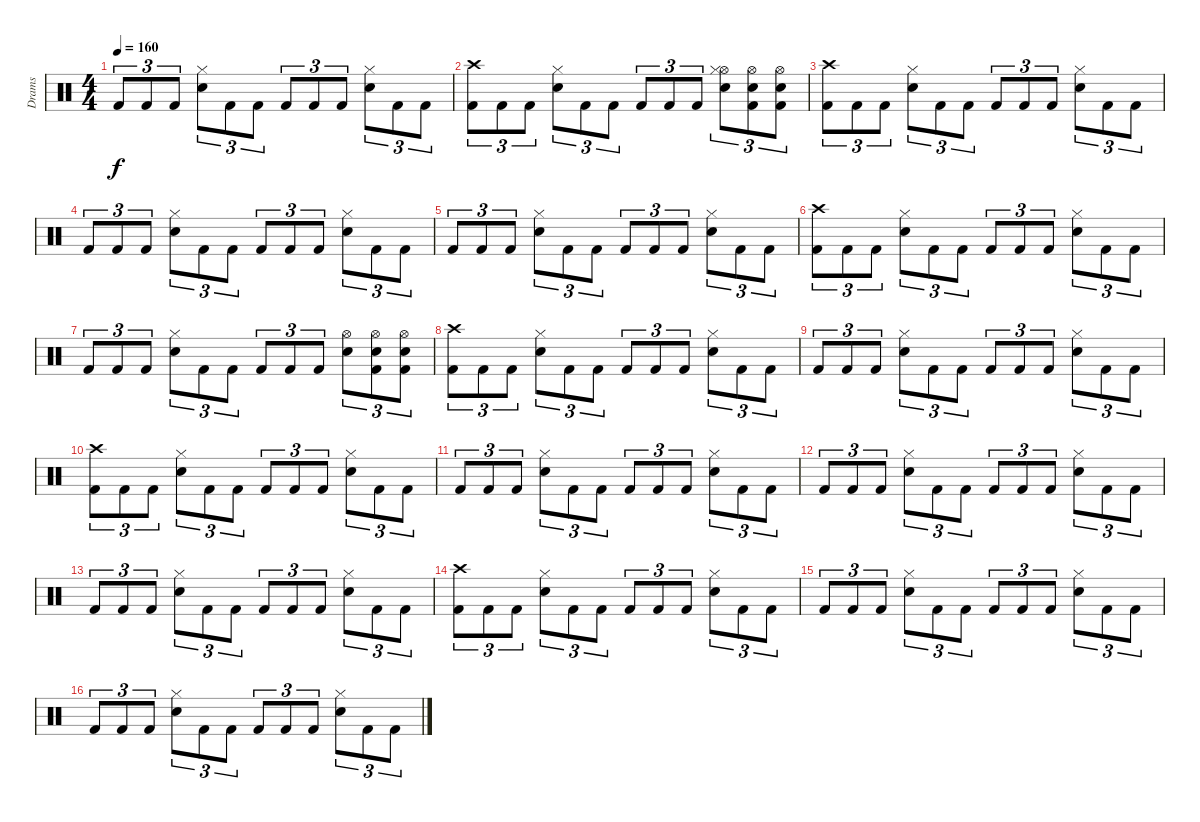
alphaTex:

\track ("Drams" "Drams") {instrument percussion}
\staff {score}
\articulation defaults
\ts (4 4)
\tempo 160
\clef neutral
\ks c "Kick (hit) 2".8{tu (3 2) dy f} "Kick (hit) 2".8{tu (3 2)} "Kick (hit) 2".8{tu (3 2)}
("Hi-Hat (closed)" "Snare (hit) 2").8{tu (3 2)} "Kick (hit) 2".8{tu (3 2)} "Kick (hit) 2".8{tu (3 2)} "Kick (hit) 2".8{tu (3 2)} "Kick (hit) 2".8{tu (3 2)} "Kick (hit) 2".8{tu (3 2)} ("Hi-Hat (closed)" "Snare (hit) 2").8{tu (3 2)} "Kick (hit) 2".8{tu (3 2)} "Kick (hit) 2".8{tu (3 2)} |
("Crash high (hit)" "Kick (hit) 2").8{tu (3 2)} "Kick (hit) 2".8{tu (3 2)} "Kick (hit) 2".8{tu (3 2)} ("Hi-Hat (closed)" "Snare (hit) 2").8{tu (3 2)} "Kick (hit) 2".8{tu (3 2)} "Kick (hit) 2".8{tu (3 2)} "Kick (hit) 2".8{tu (3 2)} "Kick (hit) 2".8{tu (3 2)} "Kick (hit) 2".8{tu (3 2)} ("Hi-Hat (open)" "Hi-Hat (closed)" "Snare (hit) 2").8{tu (3 2)} ("Hi-Hat (open)" "Snare (hit) 2" "Kick (hit) 2").8{tu (3 2)} ("Hi-Hat (open)" "Snare (hit) 2" "Kick (hit) 2").8{tu (3 2)} |
("Crash high (hit)" "Kick (hit) 2").8{tu (3 2)} "Kick (hit) 2".8{tu (3 2)} "Kick (hit) 2".8{tu (3 2)} ("Hi-Hat (closed)" "Snare (hit) 2").8{tu (3 2)} "Kick (hit) 2".8{tu (3 2)} "Kick (hit) 2".8{tu (3 2)} "Kick (hit) 2".8{tu (3 2)} "Kick (hit) 2".8{tu (3 2)} "Kick (hit) 2".8{tu (3 2)} ("Hi-Hat (closed)" "Snare (hit) 2").8{tu (3 2)} "Kick (hit) 2".8{tu (3 2)} "Kick (hit) 2".8{tu (3 2)} |
"Kick (hit) 2".8{tu (3 2)} "Kick (hit) 2".8{tu (3 2)} "Kick (hit) 2".8{tu (3 2)} ("Hi-Hat (closed)" "Snare (hit) 2").8{tu (3 2)} "Kick (hit) 2".8{tu (3 2)} "Kick (hit) 2".8{tu (3 2)} "Kick (hit) 2".8{tu (3 2)} "Kick (hit) 2".8{tu (3 2)} "Kick (hit) 2".8{tu (3 2)} ("Hi-Hat (closed)" "Snare (hit) 2").8{tu (3 2)} "Kick (hit) 2".8{tu (3 2)} "Kick (hit) 2".8{tu (3 2)} |
"Kick (hit) 2".8{tu (3 2)} "Kick (hit) 2".8{tu (3 2)} "Kick (hit) 2".8{tu (3 2)} ("Hi-Hat (closed)" "Snare (hit) 2").8{tu (3 2)} "Kick (hit) 2".8{tu (3 2)} "Kick (hit) 2".8{tu (3 2)} "Kick (hit) 2".8{tu (3 2)} "Kick (hit) 2".8{tu (3 2)} "Kick (hit) 2".8{tu (3 2)} ("Hi-Hat (closed)" "Snare (hit) 2").8{tu (3 2)} "Kick (hit) 2".8{tu (3 2)} "Kick (hit) 2".8{tu (3 2)} |
("Crash high (hit)" "Kick (hit) 2").8{tu (3 2)} "Kick (hit) 2".8{tu (3 2)} "Kick (hit) 2".8{tu (3 2)} ("Hi-Hat (closed)" "Snare (hit) 2").8{tu (3 2)} "Kick (hit) 2".8{tu (3 2)} "Kick (hit) 2".8{tu (3 2)} "Kick (hit) 2".8{tu (3 2)} "Kick (hit) 2".8{tu (3 2)} "Kick (hit) 2".8{tu (3 2)} ("Hi-Hat (closed)" "Snare (hit) 2").8{tu (3 2)} "Kick (hit) 2".8{tu (3 2)} "Kick (hit) 2".8{tu (3 2)} |
"Kick (hit) 2".8{tu (3 2)} "Kick (hit) 2".8{tu (3 2)} "Kick (hit) 2".8{tu (3 2)} ("Hi-Hat (closed)" "Snare (hit) 2").8{tu (3 2)} "Kick (hit) 2".8{tu (3 2)} "Kick (hit) 2".8{tu (3 2)} "Kick (hit) 2".8{tu (3 2)} "Kick (hit) 2".8{tu (3 2)} "Kick (hit) 2".8{tu (3 2)} ("Hi-Hat (open)" "Snare (hit) 2").8{tu (3 2)} ("Hi-Hat (open)" "Snare (hit) 2" "Kick (hit) 2").8{tu (3 2)} ("Hi-Hat (open)" "Snare (hit) 2" "Kick (hit) 2").8{tu (3 2)} |
("Crash high (hit)" "Kick (hit) 2").8{tu (3 2)} "Kick (hit) 2".8{tu (3 2)} "Kick (hit) 2".8{tu (3 2)} ("Hi-Hat (closed)" "Snare (hit) 2").8{tu (3 2)} "Kick (hit) 2".8{tu (3 2)} "Kick (hit) 2".8{tu (3 2)} "Kick (hit) 2".8{tu (3 2)} "Kick (hit) 2".8{tu (3 2)} "Kick (hit) 2".8{tu (3 2)} ("Hi-Hat (closed)" "Snare (hit) 2").8{tu (3 2)} "Kick (hit) 2".8{tu (3 2)} "Kick (hit) 2".8{tu (3 2)} |
"Kick (hit) 2".8{tu (3 2)} "Kick (hit) 2".8{tu (3 2)} "Kick (hit) 2".8{tu (3 2)} ("Hi-Hat (closed)" "Snare (hit) 2").8{tu (3 2)} "Kick (hit) 2".8{tu (3 2)} "Kick (hit) 2".8{tu (3 2)} "Kick (hit) 2".8{tu (3 2)} "Kick (hit) 2".8{tu (3 2)} "Kick (hit) 2".8{tu (3 2)} ("Hi-Hat (closed)" "Snare (hit) 2").8{tu (3 2)} "Kick (hit) 2".8{tu (3 2)} "Kick (hit) 2".8{tu (3 2)} |
("Crash high (hit)" "Kick (hit) 2").8{tu (3 2)} "Kick (hit) 2".8{tu (3 2)} "Kick (hit) 2".8{tu (3 2)} ("Hi-Hat (closed)" "Snare (hit) 2").8{tu (3 2)} "Kick (hit) 2".8{tu (3 2)} "Kick (hit) 2".8{tu (3 2)} "Kick (hit) 2".8{tu (3 2)} "Kick (hit) 2".8{tu (3 2)} "Kick (hit) 2".8{tu (3 2)} ("Hi-Hat (closed)" "Snare (hit) 2").8{tu (3 2)} "Kick (hit) 2".8{tu (3 2)} "Kick (hit) 2".8{tu (3 2)} |
"Kick (hit) 2".8{tu (3 2)} "Kick (hit) 2".8{tu (3 2)} "Kick (hit) 2".8{tu (3 2)} ("Hi-Hat (closed)" "Snare (hit) 2").8{tu (3 2)} "Kick (hit) 2".8{tu (3 2)} "Kick (hit) 2".8{tu (3 2)} "Kick (hit) 2".8{tu (3 2)} "Kick (hit) 2".8{tu (3 2)} "Kick (hit) 2".8{tu (3 2)} ("Hi-Hat (closed)" "Snare (hit) 2").8{tu (3 2)} "Kick (hit) 2".8{tu (3 2)} "Kick (hit) 2".8{tu (3 2)} |
"Kick (hit) 2".8{tu (3 2)} "Kick (hit) 2".8{tu (3 2)} "Kick (hit) 2".8{tu (3 2)} ("Hi-Hat (closed)" "Snare (hit) 2").8{tu (3 2)} "Kick (hit) 2".8{tu (3 2)} "Kick (hit) 2".8{tu (3 2)} "Kick (hit) 2".8{tu (3 2)} "Kick (hit) 2".8{tu (3 2)} "Kick (hit) 2".8{tu (3 2)} ("Hi-Hat (closed)" "Snare (hit) 2").8{tu (3 2)} "Kick (hit) 2".8{tu (3 2)} "Kick (hit) 2".8{tu (3 2)} |
"Kick (hit) 2".8{tu (3 2)} "Kick (hit) 2".8{tu (3 2)} "Kick (hit) 2".8{tu (3 2)} ("Hi-Hat (closed)" "Snare (hit) 2").8{tu (3 2)} "Kick (hit) 2".8{tu (3 2)} "Kick (hit) 2".8{tu (3 2)} "Kick (hit) 2".8{tu (3 2)} "Kick (hit) 2".8{tu (3 2)} "Kick (hit) 2".8{tu (3 2)} ("Hi-Hat (closed)" "Snare (hit) 2").8{tu (3 2)} "Kick (hit) 2".8{tu (3 2)} "Kick (hit) 2".8{tu (3 2)} |
("Crash high (hit)" "Kick (hit) 2").8{tu (3 2)} "Kick (hit) 2".8{tu (3 2)} "Kick (hit) 2".8{tu (3 2)} ("Hi-Hat (closed)" "Snare (hit) 2").8{tu (3 2)} "Kick (hit) 2".8{tu (3 2)} "Kick (hit) 2".8{tu (3 2)} "Kick (hit) 2".8{tu (3 2)} "Kick (hit) 2".8{tu (3 2)} "Kick (hit) 2".8{tu (3 2)} ("Hi-Hat (closed)" "Snare (hit) 2").8{tu (3 2)} "Kick (hit) 2".8{tu (3 2)} "Kick (hit) 2".8{tu (3 2)} |
"Kick (hit) 2".8{tu (3 2)} "Kick (hit) 2".8{tu (3 2)} "Kick (hit) 2".8{tu (3 2)} ("Hi-Hat (closed)" "Snare (hit) 2").8{tu (3 2)} "Kick (hit) 2".8{tu (3 2)} "Kick (hit) 2".8{tu (3 2)} "Kick (hit) 2".8{tu (3 2)} "Kick (hit) 2".8{tu (3 2)} "Kick (hit) 2".8{tu (3 2)} ("Hi-Hat (closed)" "Snare (hit) 2").8{tu (3 2)} "Kick (hit) 2".8{tu (3 2)} "Kick (hit) 2".8{tu (3 2)} |
"Kick (hit) 2".8{tu (3 2)} "Kick (hit) 2".8{tu (3 2)} "Kick (hit) 2".8{tu (3 2)} ("Hi-Hat (closed)" "Snare (hit) 2").8{tu (3 2)} "Kick (hit) 2".8{tu (3 2)} "Kick (hit) 2".8{tu (3 2)} "Kick (hit) 2".8{tu (3 2)} "Kick (hit) 2".8{tu (3 2)} "Kick (hit) 2".8{tu (3 2)} ("Hi-Hat (closed)" "Snare (hit) 2").8{tu (3 2)} "Kick (hit) 2".8{tu (3 2)} "Kick (hit) 2".8{tu (3 2)}
